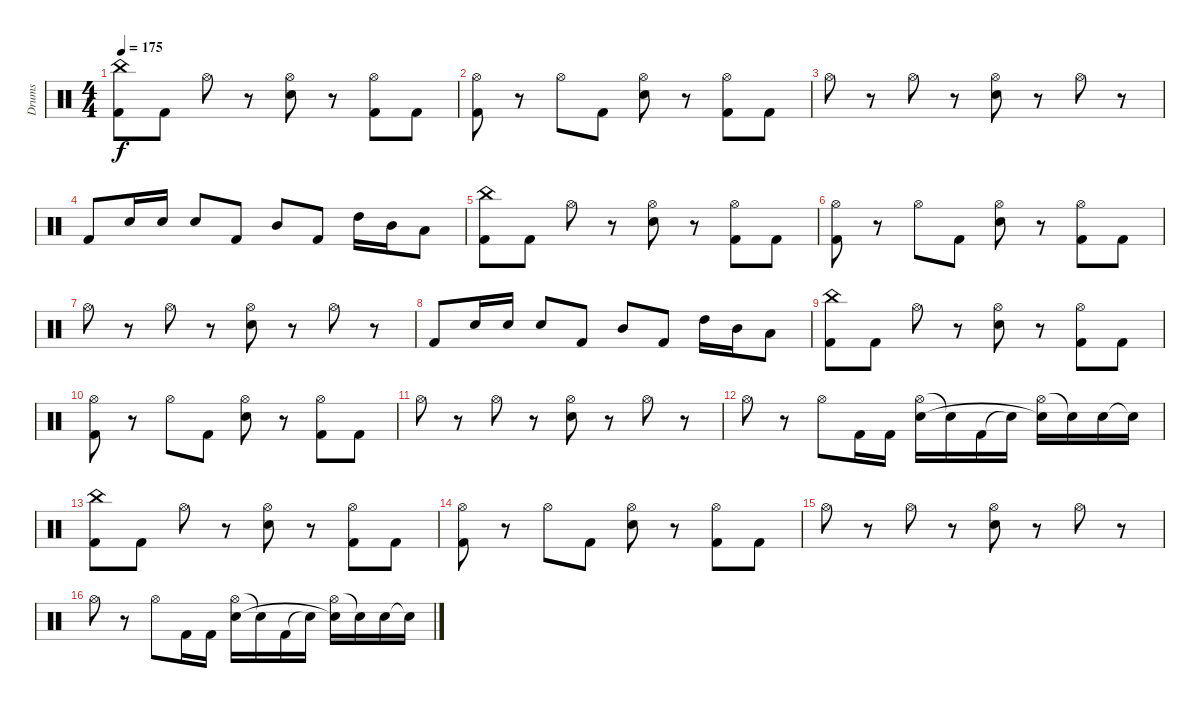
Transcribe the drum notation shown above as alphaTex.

\track ("Drums" "Drums") {instrument percussion}
\staff {score}
\articulation defaults
\ts (4 4)
\tempo 175
\clef neutral
\ks c
("China (hit)" "Kick (hit) 2").8{dy f} "Kick (hit) 2".8 "Hi-Hat (open)".8 r.8 ("Hi-Hat (open)" "Electric Snare (hit)").8 r.8 ("Hi-Hat (open)" "Kick (hit) 2").8 "Kick (hit) 2".8 |
("Hi-Hat (open)" "Kick (hit) 2").8 r.8 "Hi-Hat (open)".8 "Kick (hit) 2".8 ("Hi-Hat (open)" "Electric Snare (hit)").8 r.8 ("Hi-Hat (open)" "Kick (hit) 2").8 "Kick (hit) 2".8 |
"Hi-Hat (open)".8 r.8 "Hi-Hat (open)".8 r.8 ("Hi-Hat (open)" "Electric Snare (hit)").8 r.8 "Hi-Hat (open)".8 r.8 |
"Kick (hit) 2".8 "Electric Snare (hit)".16 "Electric Snare (hit)".16 "Electric Snare (hit)".8 "Kick (hit) 2".8 "Mid Tom (hit)".8 "Kick (hit) 2".8 "High Tom (hit)".16 "Mid Tom (hit)".16 "Low Tom (hit)".8 |
("China (hit)" "Kick (hit) 2").8 "Kick (hit) 2".8 "Hi-Hat (open)".8 r.8 ("Hi-Hat (open)" "Electric Snare (hit)").8 r.8 ("Hi-Hat (open)" "Kick (hit) 2").8 "Kick (hit) 2".8 |
("Hi-Hat (open)" "Kick (hit) 2").8 r.8 "Hi-Hat (open)".8 "Kick (hit) 2".8 ("Hi-Hat (open)" "Electric Snare (hit)").8 r.8 ("Hi-Hat (open)" "Kick (hit) 2").8 "Kick (hit) 2".8 |
"Hi-Hat (open)".8 r.8 "Hi-Hat (open)".8 r.8 ("Hi-Hat (open)" "Electric Snare (hit)").8 r.8 "Hi-Hat (open)".8 r.8 |
"Kick (hit) 2".8 "Electric Snare (hit)".16 "Electric Snare (hit)".16 "Electric Snare (hit)".8 "Kick (hit) 2".8 "Mid Tom (hit)".8 "Kick (hit) 2".8 "High Tom (hit)".16 "Mid Tom (hit)".16 "Low Tom (hit)".8 |
("China (hit)" "Kick (hit) 2").8 "Kick (hit) 2".8 "Hi-Hat (open)".8 r.8 ("Hi-Hat (open)" "Electric Snare (hit)").8 r.8 ("Hi-Hat (open)" "Kick (hit) 2").8 "Kick (hit) 2".8 |
("Hi-Hat (open)" "Kick (hit) 2").8 r.8 "Hi-Hat (open)".8 "Kick (hit) 2".8 ("Hi-Hat (open)" "Electric Snare (hit)").8 r.8 ("Hi-Hat (open)" "Kick (hit) 2").8 "Kick (hit) 2".8 |
"Hi-Hat (open)".8 r.8 "Hi-Hat (open)".8 r.8 ("Hi-Hat (open)" "Electric Snare (hit)").8 r.8 "Hi-Hat (open)".8 r.8 |
"Hi-Hat (open)".8 r.8 "Hi-Hat (open)".8 "Kick (hit) 2".16 "Kick (hit) 2".16 ("Hi-Hat (open)" "Electric Snare (hit)").16 "Electric Snare (hit)"{t}.16 "Kick (hit) 2".16 "Snare (hit)"{t}.16 ("Hi-Hat (open)" "Snare (hit)"{t}).16 "Snare (hit)"{t}.16 "Electric Snare (hit)".16 "Snare (hit)"{t}.16 |
("China (hit)" "Kick (hit) 2").8 "Kick (hit) 2".8 "Hi-Hat (open)".8 r.8 ("Hi-Hat (open)" "Electric Snare (hit)").8 r.8 ("Hi-Hat (open)" "Kick (hit) 2").8 "Kick (hit) 2".8 |
("Hi-Hat (open)" "Kick (hit) 2").8 r.8 "Hi-Hat (open)".8 "Kick (hit) 2".8 ("Hi-Hat (open)" "Electric Snare (hit)").8 r.8 ("Hi-Hat (open)" "Kick (hit) 2").8 "Kick (hit) 2".8 |
"Hi-Hat (open)".8 r.8 "Hi-Hat (open)".8 r.8 ("Hi-Hat (open)" "Electric Snare (hit)").8 r.8 "Hi-Hat (open)".8 r.8 |
"Hi-Hat (open)".8 r.8 "Hi-Hat (open)".8 "Kick (hit) 2".16 "Kick (hit) 2".16 ("Hi-Hat (open)" "Electric Snare (hit)").16 "Electric Snare (hit)"{t}.16 "Kick (hit) 2".16 "Snare (hit)"{t}.16 ("Hi-Hat (open)" "Snare (hit)"{t}).16 "Snare (hit)"{t}.16 "Electric Snare (hit)".16 "Snare (hit)"{t}.16
